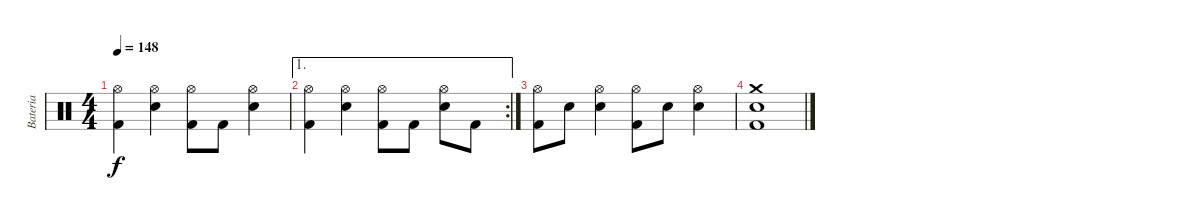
\track ("Bateria" "Bateria") {instrument percussion}
\staff {score}
\articulation defaults
\ts (4 4)
\tempo 148
\clef neutral
\ks c
("Hi-Hat (open)" "Kick (hit) 2").4{dy f} ("Hi-Hat (open)" "Electric Snare (hit)").4 ("Hi-Hat (open)" "Kick (hit) 2").8 "Kick (hit) 2".8 ("Hi-Hat (open)" "Electric Snare (hit)").4 |
\ae 1
\rc 2
("Hi-Hat (open)" "Kick (hit) 2").4 ("Hi-Hat (open)" "Electric Snare (hit)").4 ("Hi-Hat (open)" "Kick (hit) 2").8 "Kick (hit) 2".8 ("Hi-Hat (open)" "Electric Snare (hit)").8 "Kick (hit) 2".8 |
("Hi-Hat (open)" "Kick (hit) 2").8 "Electric Snare (hit)".8 ("Hi-Hat (open)" "Electric Snare (hit)").4 ("Hi-Hat (open)" "Kick (hit) 2").8 "Electric Snare (hit)".8 ("Hi-Hat (open)" "Electric Snare (hit)").4 |
("Crash medium (hit)" "Electric Snare (hit)" "Kick (hit) 2").1
